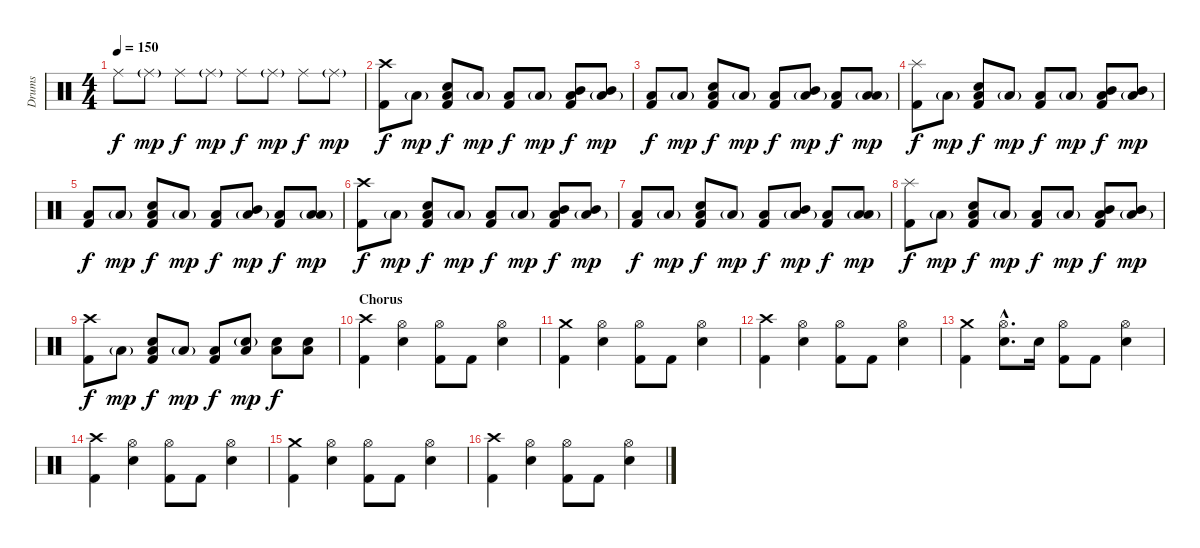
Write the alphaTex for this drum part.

\track ("Drums" "Drums") {instrument percussion}
\staff {score}
\articulation defaults
\ts (4 4)
\tempo 150
\clef neutral
\ks c "Ride (middle)".8{dy f} "Ride (middle)"{g}.8{dy mp} "Ride (middle)".8{dy f} "Ride (middle)"{g}.8{dy mp} "Ride (middle)".8{dy f} "Ride (middle)"{g}.8{dy mp} "Ride (middle)".8{dy f} "Ride (middle)"{g}.8{dy mp}
|
("Crash high (hit)" "Kick (hit) 2").8{dy f} "Low Floor Tom (hit)"{g}.8{dy mp} ("Low Floor Tom (hit)" "Kick (hit) 2" "Electric Snare (hit)").8{dy f} "Low Floor Tom (hit)"{g}.8{dy mp} ("Low Floor Tom (hit)" "Kick (hit) 2").8{dy f} "Low Floor Tom (hit)"{g}.8{dy mp} ("Low Floor Tom (hit)" "Kick (hit) 2" "Mid Tom (hit)").8{dy f} ("Low Floor Tom (hit)"{g} "Mid Tom (hit)").8{dy mp} |
("Low Floor Tom (hit)" "Kick (hit) 2").8{dy f} "Low Floor Tom (hit)"{g}.8{dy mp} ("Low Floor Tom (hit)" "Kick (hit) 2" "Electric Snare (hit)").8{dy f} "Low Floor Tom (hit)"{g}.8{dy mp} ("Low Floor Tom (hit)" "Kick (hit) 2").8{dy f} ("Low Floor Tom (hit)"{g} "Mid Tom (hit)").8{dy mp} ("Low Floor Tom (hit)" "Kick (hit) 2").8{dy f} ("Low Floor Tom (hit)"{g} "Low Tom (hit)").8{dy mp} |
("Splash (hit)" "Kick (hit) 2").8{dy f} "Low Floor Tom (hit)"{g}.8{dy mp} ("Low Floor Tom (hit)" "Kick (hit) 2" "Electric Snare (hit)").8{dy f} "Low Floor Tom (hit)"{g}.8{dy mp} ("Low Floor Tom (hit)" "Kick (hit) 2").8{dy f} "Low Floor Tom (hit)"{g}.8{dy mp} ("Low Floor Tom (hit)" "Kick (hit) 2" "Mid Tom (hit)").8{dy f} ("Low Floor Tom (hit)"{g} "Mid Tom (hit)").8{dy mp} |
("Low Floor Tom (hit)" "Kick (hit) 2").8{dy f} "Low Floor Tom (hit)"{g}.8{dy mp} ("Low Floor Tom (hit)" "Kick (hit) 2" "Electric Snare (hit)").8{dy f} "Low Floor Tom (hit)"{g}.8{dy mp} ("Low Floor Tom (hit)" "Kick (hit) 2").8{dy f} ("Low Floor Tom (hit)"{g} "Mid Tom (hit)").8{dy mp} ("Low Floor Tom (hit)" "Kick (hit) 2").8{dy f} ("Low Floor Tom (hit)"{g} "Low Tom (hit)").8{dy mp} |
("Crash high (hit)" "Kick (hit) 2").8{dy f} "Low Floor Tom (hit)"{g}.8{dy mp} ("Low Floor Tom (hit)" "Kick (hit) 2" "Electric Snare (hit)").8{dy f} "Low Floor Tom (hit)"{g}.8{dy mp} ("Low Floor Tom (hit)" "Kick (hit) 2").8{dy f} "Low Floor Tom (hit)"{g}.8{dy mp} ("Low Floor Tom (hit)" "Kick (hit) 2" "Mid Tom (hit)").8{dy f} ("Low Floor Tom (hit)"{g} "Mid Tom (hit)").8{dy mp} |
("Low Floor Tom (hit)" "Kick (hit) 2").8{dy f} "Low Floor Tom (hit)"{g}.8{dy mp} ("Low Floor Tom (hit)" "Kick (hit) 2" "Electric Snare (hit)").8{dy f} "Low Floor Tom (hit)"{g}.8{dy mp} ("Low Floor Tom (hit)" "Kick (hit) 2").8{dy f} ("Low Floor Tom (hit)"{g} "Mid Tom (hit)").8{dy mp} ("Low Floor Tom (hit)" "Kick (hit) 2").8{dy f} ("Low Floor Tom (hit)"{g} "Low Tom (hit)").8{dy mp} |
("Splash (hit)" "Kick (hit) 2").8{dy f} "Low Floor Tom (hit)"{g}.8{dy mp} ("Low Floor Tom (hit)" "Kick (hit) 2" "Electric Snare (hit)").8{dy f} "Low Floor Tom (hit)"{g}.8{dy mp} ("Low Floor Tom (hit)" "Kick (hit) 2").8{dy f} "Low Floor Tom (hit)"{g}.8{dy mp} ("Low Floor Tom (hit)" "Kick (hit) 2" "Mid Tom (hit)").8{dy f} ("Low Floor Tom (hit)"{g} "Mid Tom (hit)").8{dy mp} |
("Crash high (hit)" "Kick (hit) 2").8{dy f} "Low Floor Tom (hit)"{g}.8{dy mp} ("Low Floor Tom (hit)" "Kick (hit) 2" "Electric Snare (hit)").8{dy f} "Low Floor Tom (hit)"{g}.8{dy mp} ("Low Floor Tom (hit)" "Kick (hit) 2").8{dy f} ("Low Floor Tom (hit)" "Electric Snare (hit)"{g}).8{dy mp} ("Low Floor Tom (hit)" "Electric Snare (hit)").8{dy f} ("Low Floor Tom (hit)" "Electric Snare (hit)").8 |
\section ("" "Chorus")
("Crash high (hit)" "Kick (hit) 2").4 ("Hi-Hat (open)" "Electric Snare (hit)").4 ("Hi-Hat (open)" "Kick (hit) 2").8 "Kick (hit) 2".8 ("Hi-Hat (open)" "Electric Snare (hit)").4 |
("Crash medium (hit)" "Kick (hit) 2").4 ("Hi-Hat (open)" "Electric Snare (hit)").4 ("Hi-Hat (open)" "Kick (hit) 2").8 "Kick (hit) 2".8 ("Hi-Hat (open)" "Electric Snare (hit)").4 |
("Crash high (hit)" "Kick (hit) 2").4 ("Hi-Hat (open)" "Electric Snare (hit)").4 ("Hi-Hat (open)" "Kick (hit) 2").8 "Kick (hit) 2".8 ("Hi-Hat (open)" "Electric Snare (hit)").4 |
("Crash medium (hit)" "Kick (hit) 2").4 ("Hi-Hat (open)"{hac} "Electric Snare (hit)"{hac}).8{d} "Electric Snare (hit)".16 ("Hi-Hat (open)" "Kick (hit) 2").8 "Kick (hit) 2".8 ("Hi-Hat (open)" "Electric Snare (hit)").4 |
("Crash high (hit)" "Kick (hit) 2").4 ("Hi-Hat (open)" "Electric Snare (hit)").4 ("Hi-Hat (open)" "Kick (hit) 2").8 "Kick (hit) 2".8 ("Hi-Hat (open)" "Electric Snare (hit)").4 |
("Crash medium (hit)" "Kick (hit) 2").4 ("Hi-Hat (open)" "Electric Snare (hit)").4 ("Hi-Hat (open)" "Kick (hit) 2").8 "Kick (hit) 2".8 ("Hi-Hat (open)" "Electric Snare (hit)").4 |
("Crash high (hit)" "Kick (hit) 2").4 ("Hi-Hat (open)" "Electric Snare (hit)").4 ("Hi-Hat (open)" "Kick (hit) 2").8 "Kick (hit) 2".8 ("Hi-Hat (open)" "Electric Snare (hit)").4
